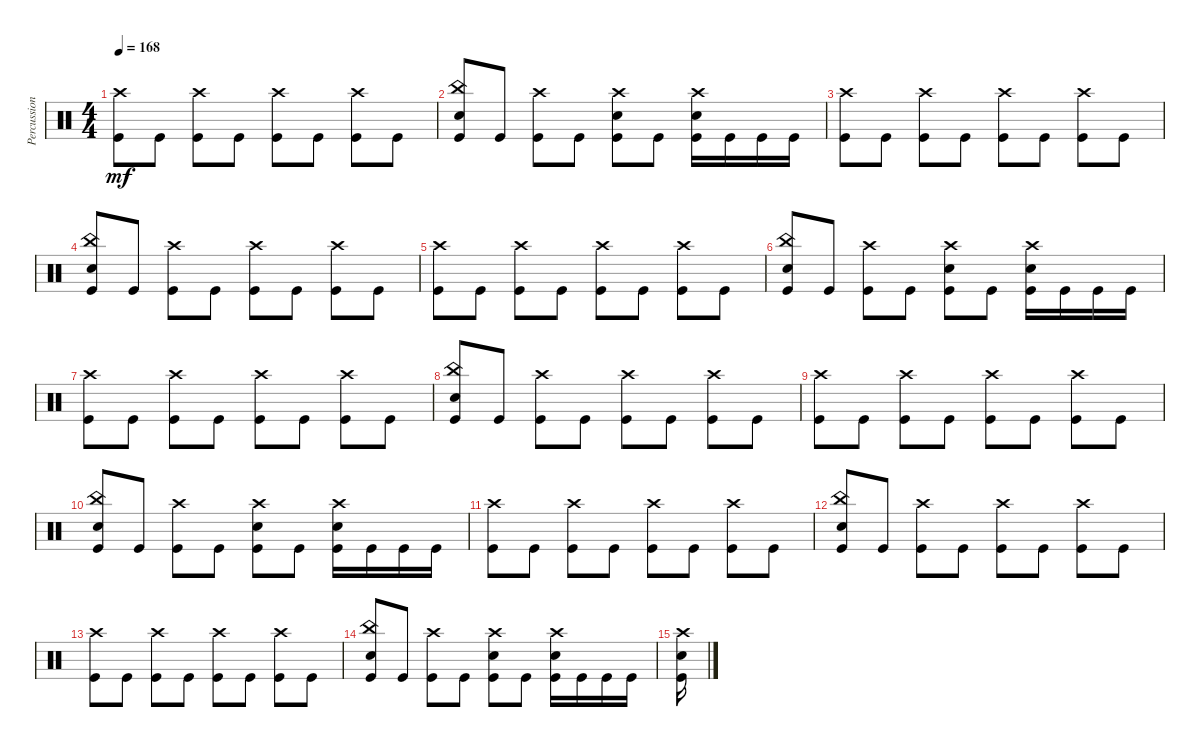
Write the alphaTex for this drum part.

\track ("Percussion" "Percussion") {instrument percussion}
\staff {score}
\articulation defaults
\ts (4 4)
\tempo 168
\clef neutral
\ks c
("Crash high (hit)" "Kick (hit)").8{dy mf} "Kick (hit)".8 ("Crash high (hit)" "Kick (hit)").8 "Kick (hit)".8 ("Crash high (hit)" "Kick (hit)").8 "Kick (hit)".8 ("Crash high (hit)" "Kick (hit)").8 "Kick (hit)".8 |
("China (hit)" "Electric Snare (hit)" "Kick (hit)").8 "Kick (hit)".8 ("Crash high (hit)" "Kick (hit)").8 "Kick (hit)".8 ("Crash high (hit)" "Electric Snare (hit)" "Kick (hit)").8 "Kick (hit)".8 ("Crash high (hit)" "Electric Snare (hit)" "Kick (hit)").16 "Kick (hit)".16 "Kick (hit)".16 "Kick (hit)".16 |
("Crash high (hit)" "Kick (hit)").8 "Kick (hit)".8 ("Crash high (hit)" "Kick (hit)").8 "Kick (hit)".8 ("Crash high (hit)" "Kick (hit)").8 "Kick (hit)".8 ("Crash high (hit)" "Kick (hit)").8 "Kick (hit)".8 |
("China (hit)" "Electric Snare (hit)" "Kick (hit)").8 "Kick (hit)".8 ("Crash high (hit)" "Kick (hit)").8 "Kick (hit)".8 ("Crash high (hit)" "Kick (hit)").8 "Kick (hit)".8 ("Crash high (hit)" "Kick (hit)").8 "Kick (hit)".8 |
("Crash high (hit)" "Kick (hit)").8 "Kick (hit)".8 ("Crash high (hit)" "Kick (hit)").8 "Kick (hit)".8 ("Crash high (hit)" "Kick (hit)").8 "Kick (hit)".8 ("Crash high (hit)" "Kick (hit)").8 "Kick (hit)".8 |
("China (hit)" "Electric Snare (hit)" "Kick (hit)").8 "Kick (hit)".8 ("Crash high (hit)" "Kick (hit)").8 "Kick (hit)".8 ("Crash high (hit)" "Electric Snare (hit)" "Kick (hit)").8 "Kick (hit)".8 ("Crash high (hit)" "Electric Snare (hit)" "Kick (hit)").16 "Kick (hit)".16 "Kick (hit)".16 "Kick (hit)".16 |
("Crash high (hit)" "Kick (hit)").8 "Kick (hit)".8 ("Crash high (hit)" "Kick (hit)").8 "Kick (hit)".8 ("Crash high (hit)" "Kick (hit)").8 "Kick (hit)".8 ("Crash high (hit)" "Kick (hit)").8 "Kick (hit)".8 |
("China (hit)" "Electric Snare (hit)" "Kick (hit)").8 "Kick (hit)".8 ("Crash high (hit)" "Kick (hit)").8 "Kick (hit)".8 ("Crash high (hit)" "Kick (hit)").8 "Kick (hit)".8 ("Crash high (hit)" "Kick (hit)").8 "Kick (hit)".8 |
("Crash high (hit)" "Kick (hit)").8 "Kick (hit)".8 ("Crash high (hit)" "Kick (hit)").8 "Kick (hit)".8 ("Crash high (hit)" "Kick (hit)").8 "Kick (hit)".8 ("Crash high (hit)" "Kick (hit)").8 "Kick (hit)".8 |
("China (hit)" "Electric Snare (hit)" "Kick (hit)").8 "Kick (hit)".8 ("Crash high (hit)" "Kick (hit)").8 "Kick (hit)".8 ("Crash high (hit)" "Electric Snare (hit)" "Kick (hit)").8 "Kick (hit)".8 ("Crash high (hit)" "Electric Snare (hit)" "Kick (hit)").16 "Kick (hit)".16 "Kick (hit)".16 "Kick (hit)".16 |
("Crash high (hit)" "Kick (hit)").8 "Kick (hit)".8 ("Crash high (hit)" "Kick (hit)").8 "Kick (hit)".8 ("Crash high (hit)" "Kick (hit)").8 "Kick (hit)".8 ("Crash high (hit)" "Kick (hit)").8 "Kick (hit)".8 |
("China (hit)" "Electric Snare (hit)" "Kick (hit)").8 "Kick (hit)".8 ("Crash high (hit)" "Kick (hit)").8 "Kick (hit)".8 ("Crash high (hit)" "Kick (hit)").8 "Kick (hit)".8 ("Crash high (hit)" "Kick (hit)").8 "Kick (hit)".8 |
("Crash high (hit)" "Kick (hit)").8 "Kick (hit)".8 ("Crash high (hit)" "Kick (hit)").8 "Kick (hit)".8 ("Crash high (hit)" "Kick (hit)").8 "Kick (hit)".8 ("Crash high (hit)" "Kick (hit)").8 "Kick (hit)".8 |
("China (hit)" "Electric Snare (hit)" "Kick (hit)").8 "Kick (hit)".8 ("Crash high (hit)" "Kick (hit)").8 "Kick (hit)".8 ("Crash high (hit)" "Electric Snare (hit)" "Kick (hit)").8 "Kick (hit)".8 ("Crash high (hit)" "Electric Snare (hit)" "Kick (hit)").16 "Kick (hit)".16 "Kick (hit)".16 "Kick (hit)".16 |
("Crash high (hit)" "Electric Snare (hit)" "Kick (hit)").16
